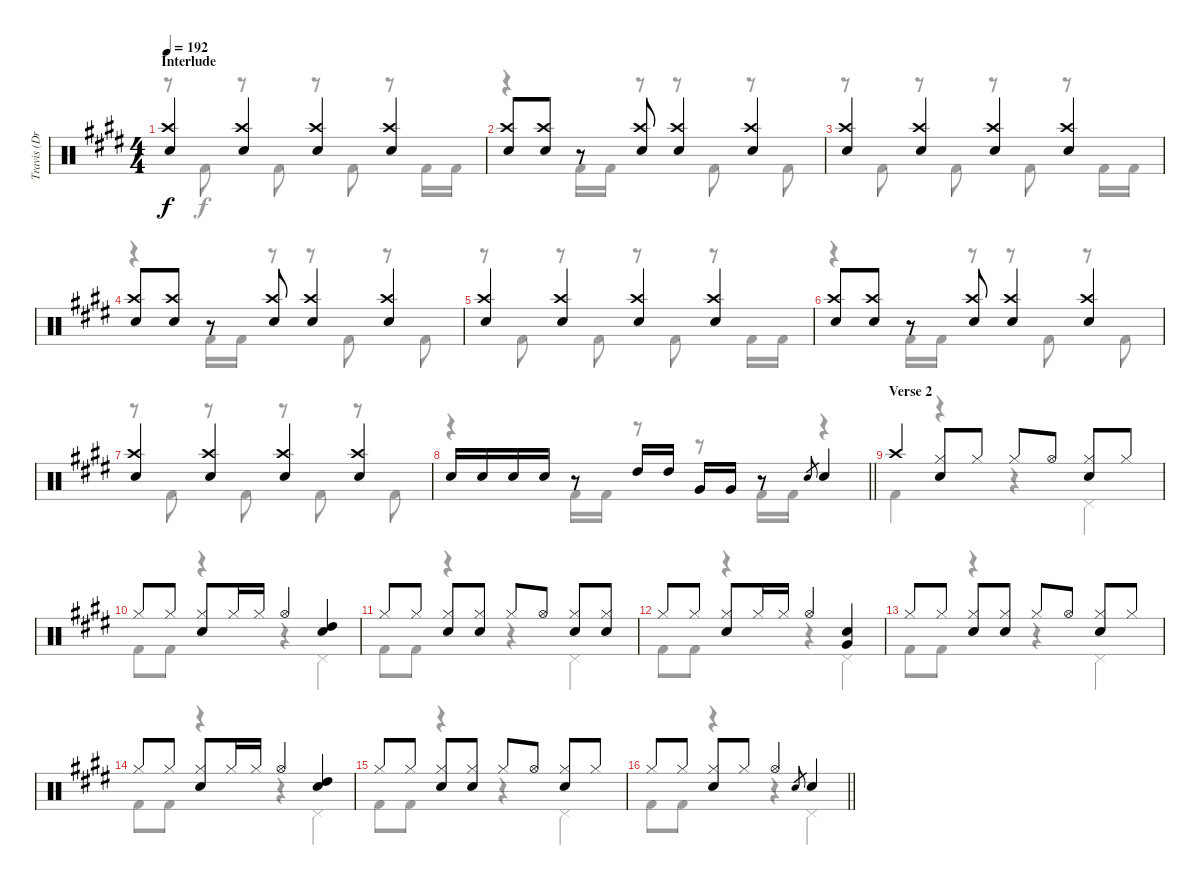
\track ("Travis (Drums)" "Travis (Dr") {instrument percussion}
\staff {score}
\articulation defaults
\voice
\ts (4 4)
\section ("" "Interlude")
\tempo 192
\clef neutral
\ks e
("Crash high (hit)" "Electric Snare (hit)").4{dy f} ("Crash high (hit)" "Electric Snare (hit)").4 ("Crash high (hit)" "Electric Snare (hit)").4 ("Crash high (hit)" "Electric Snare (hit)").4 |
("Crash high (hit)" "Electric Snare (hit)").8 ("Crash high (hit)" "Electric Snare (hit)").8 r.8 ("Crash high (hit)" "Electric Snare (hit)").8 ("Crash high (hit)" "Electric Snare (hit)").4 ("Crash high (hit)" "Electric Snare (hit)").4 |
("Crash high (hit)" "Electric Snare (hit)").4 ("Crash high (hit)" "Electric Snare (hit)").4 ("Crash high (hit)" "Electric Snare (hit)").4 ("Crash high (hit)" "Electric Snare (hit)").4 |
("Crash high (hit)" "Electric Snare (hit)").8 ("Crash high (hit)" "Electric Snare (hit)").8 r.8 ("Crash high (hit)" "Electric Snare (hit)").8 ("Crash high (hit)" "Electric Snare (hit)").4 ("Crash high (hit)" "Electric Snare (hit)").4 |
("Crash high (hit)" "Electric Snare (hit)").4 ("Crash high (hit)" "Electric Snare (hit)").4 ("Crash high (hit)" "Electric Snare (hit)").4 ("Crash high (hit)" "Electric Snare (hit)").4 |
("Crash high (hit)" "Electric Snare (hit)").8 ("Crash high (hit)" "Electric Snare (hit)").8 r.8 ("Crash high (hit)" "Electric Snare (hit)").8 ("Crash high (hit)" "Electric Snare (hit)").4 ("Crash high (hit)" "Electric Snare (hit)").4 |
("Crash high (hit)" "Electric Snare (hit)").4 ("Crash high (hit)" "Electric Snare (hit)").4 ("Crash high (hit)" "Electric Snare (hit)").4 ("Crash high (hit)" "Electric Snare (hit)").4 |
\barLineRight lightlight "Electric Snare (hit)".16 "Electric Snare (hit)".16 "Electric Snare (hit)".16 "Electric Snare (hit)".16
r.8 "High Tom (hit)".16 "High Tom (hit)".16 "Very Low Tom (hit)".16 "Very Low Tom (hit)".16 r.8 "Electric Snare (hit)".8{gr} "Electric Snare (hit)".4 |
\section ("" "Verse 2")
"Crash high (hit)".4 ("Hi-Hat (closed)" "Electric Snare (hit)").8 "Hi-Hat (closed)".8 "Hi-Hat (closed)".8 "Hi-Hat (open)".8 ("Hi-Hat (closed)" "Electric Snare (hit)").8 "Hi-Hat (closed)".8 |
"Hi-Hat (closed)".8 "Hi-Hat (closed)".8 ("Hi-Hat (closed)" "Electric Snare (hit)").8 "Hi-Hat (closed)".16 "Hi-Hat (closed)".16 "Hi-Hat (open)".4 ("Electric Snare (hit)" "High Tom (hit)").4 |
"Hi-Hat (closed)".8 "Hi-Hat (closed)".8 ("Hi-Hat (closed)" "Electric Snare (hit)").8 ("Hi-Hat (closed)" "Electric Snare (hit)").8 "Hi-Hat (closed)".8 "Hi-Hat (open)".8 ("Hi-Hat (closed)" "Electric Snare (hit)").8 ("Hi-Hat (closed)" "Electric Snare (hit)").8 |
"Hi-Hat (closed)".8 "Hi-Hat (closed)".8 ("Hi-Hat (closed)" "Electric Snare (hit)").8 "Hi-Hat (closed)".16 "Hi-Hat (closed)".16 "Hi-Hat (open)".4 ("Electric Snare (hit)" "Very Low Tom (hit)").4 |
"Hi-Hat (closed)".8 "Hi-Hat (closed)".8 ("Hi-Hat (closed)" "Electric Snare (hit)").8 ("Hi-Hat (closed)" "Electric Snare (hit)").8 "Hi-Hat (closed)".8 "Hi-Hat (open)".8 ("Hi-Hat (closed)" "Electric Snare (hit)").8 "Hi-Hat (closed)".8 |
"Hi-Hat (closed)".8 "Hi-Hat (closed)".8 ("Hi-Hat (closed)" "Electric Snare (hit)").8 "Hi-Hat (closed)".16 "Hi-Hat (closed)".16 "Hi-Hat (open)".4 ("Electric Snare (hit)" "High Tom (hit)").4 |
"Hi-Hat (closed)".8 "Hi-Hat (closed)".8 ("Hi-Hat (closed)" "Electric Snare (hit)").8 ("Hi-Hat (closed)" "Electric Snare (hit)").8 "Hi-Hat (closed)".8 "Hi-Hat (open)".8 ("Hi-Hat (closed)" "Electric Snare (hit)").8 "Hi-Hat (closed)".8 |
\barLineRight lightlight "Hi-Hat (closed)".8 "Hi-Hat (closed)".8
("Hi-Hat (closed)" "Electric Snare (hit)").8 "Hi-Hat (closed)".8 "Hi-Hat (open)".4 "Electric Snare (hit)".8{gr} "Electric Snare (hit)".4
\voice
\clef neutral
\ottava regular
\simile none
\ks e
r.8{dy f} "Kick (hit) 2".8 r.8 "Kick (hit) 2".8 r.8 "Kick (hit) 2".8 r.8 "Kick (hit) 2".16 "Kick (hit) 2".16 |
r.4 "Kick (hit) 2".16 "Kick (hit) 2".16 r.8 r.8 "Kick (hit) 2".8 r.8 "Kick (hit) 2".8 |
r.8 "Kick (hit) 2".8 r.8 "Kick (hit) 2".8 r.8 "Kick (hit) 2".8 r.8 "Kick (hit) 2".16 "Kick (hit) 2".16 |
r.4 "Kick (hit) 2".16 "Kick (hit) 2".16 r.8 r.8 "Kick (hit) 2".8 r.8 "Kick (hit) 2".8 |
r.8 "Kick (hit) 2".8 r.8 "Kick (hit) 2".8 r.8 "Kick (hit) 2".8 r.8 "Kick (hit) 2".16 "Kick (hit) 2".16 |
r.4 "Kick (hit) 2".16 "Kick (hit) 2".16 r.8 r.8 "Kick (hit) 2".8 r.8 "Kick (hit) 2".8 |
r.8 "Kick (hit) 2".8 r.8 "Kick (hit) 2".8 r.8 "Kick (hit) 2".8 r.8 "Kick (hit) 2".8 |
\barLineRight lightlight
r.4 "Kick (hit) 2".16 "Kick (hit) 2".16 r.8 r.8 "Kick (hit) 2".16 "Kick (hit) 2".16 r.4 |
"Kick (hit) 2".4 r.4 r.4 "Pedal Hi-Hat (hit)".4 |
"Kick (hit) 2".8 "Kick (hit) 2".8 r.4 r.4 "Pedal Hi-Hat (hit)".4 |
"Kick (hit) 2".8 "Kick (hit) 2".8 r.4 r.4 "Pedal Hi-Hat (hit)".4 |
"Kick (hit) 2".8 "Kick (hit) 2".8 r.4 r.4 "Pedal Hi-Hat (hit)".4 |
"Kick (hit) 2".8 "Kick (hit) 2".8 r.4 r.4 "Pedal Hi-Hat (hit)".4 |
"Kick (hit) 2".8 "Kick (hit) 2".8 r.4 r.4 "Pedal Hi-Hat (hit)".4 |
"Kick (hit) 2".8 "Kick (hit) 2".8 r.4 r.4 "Pedal Hi-Hat (hit)".4 |
\barLineRight lightlight "Kick (hit) 2".8 "Kick (hit) 2".8
r.4 r.4 "Pedal Hi-Hat (hit)".4
